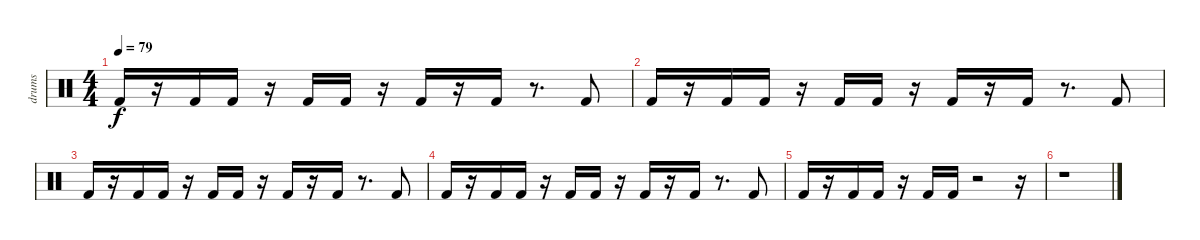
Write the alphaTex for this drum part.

\track ("drums" "drums") {instrument percussion}
\staff {score}
\articulation defaults
\ts (4 4)
\tempo 79
\clef neutral
\ks c "Kick (hit) 2".16{dy f}
r.16 "Kick (hit) 2".16 "Kick (hit) 2".16 r.16 "Kick (hit) 2".16 "Kick (hit) 2".16 r.16 "Kick (hit) 2".16 r.16 "Kick (hit) 2".16 r.8{d} "Kick (hit) 2".8 |
"Kick (hit) 2".16 r.16 "Kick (hit) 2".16 "Kick (hit) 2".16 r.16 "Kick (hit) 2".16 "Kick (hit) 2".16 r.16 "Kick (hit) 2".16 r.16 "Kick (hit) 2".16 r.8{d} "Kick (hit) 2".8 |
"Kick (hit) 2".16 r.16 "Kick (hit) 2".16 "Kick (hit) 2".16 r.16 "Kick (hit) 2".16 "Kick (hit) 2".16 r.16 "Kick (hit) 2".16 r.16 "Kick (hit) 2".16 r.8{d} "Kick (hit) 2".8 |
"Kick (hit) 2".16 r.16 "Kick (hit) 2".16 "Kick (hit) 2".16 r.16 "Kick (hit) 2".16 "Kick (hit) 2".16 r.16 "Kick (hit) 2".16 r.16 "Kick (hit) 2".16 r.8{d} "Kick (hit) 2".8 |
"Kick (hit) 2".16 r.16 "Kick (hit) 2".16 "Kick (hit) 2".16 r.16 "Kick (hit) 2".16 "Kick (hit) 2".16 r.2 r.16 |
r.1
